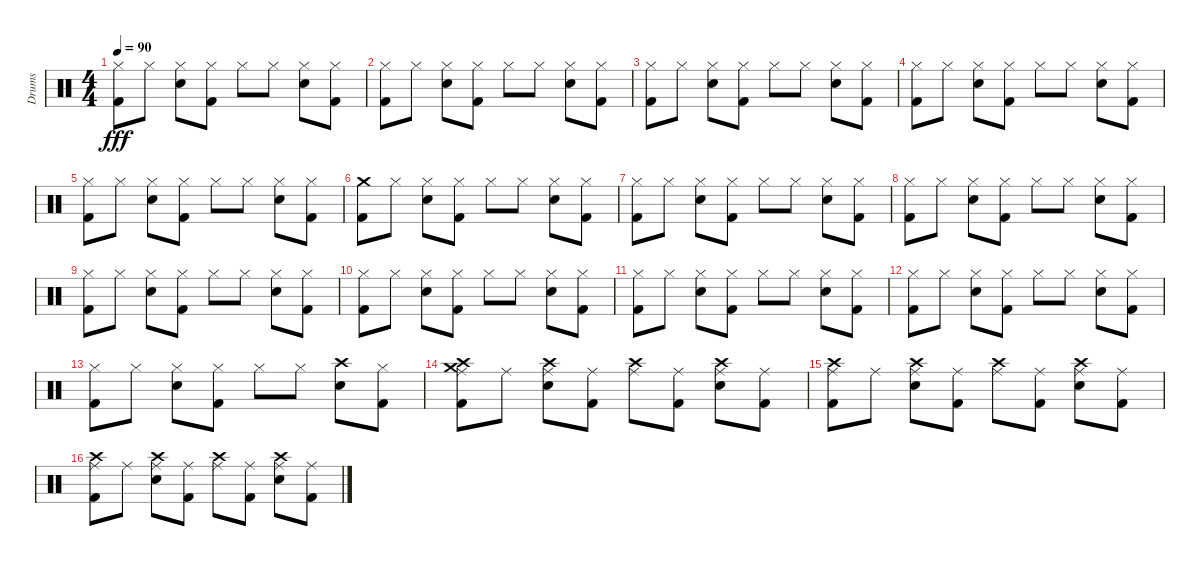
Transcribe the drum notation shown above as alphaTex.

\track ("Drums" "Drums") {instrument percussion}
\staff {score}
\articulation defaults
\ts (4 4)
\tempo 90
\clef neutral
\ks c
("Kick (hit) 2" "Hi-Hat (closed)").8{dy fff} "Hi-Hat (closed)".8 ("Snare (hit) 2" "Hi-Hat (closed)").8 ("Kick (hit) 2" "Hi-Hat (closed)").8 "Hi-Hat (closed)".8 "Hi-Hat (closed)".8 ("Snare (hit) 2" "Hi-Hat (closed)").8 ("Kick (hit) 2" "Hi-Hat (closed)").8 |
("Kick (hit) 2" "Hi-Hat (closed)").8 "Hi-Hat (closed)".8 ("Snare (hit) 2" "Hi-Hat (closed)").8 ("Kick (hit) 2" "Hi-Hat (closed)").8 "Hi-Hat (closed)".8 "Hi-Hat (closed)".8 ("Snare (hit) 2" "Hi-Hat (closed)").8 ("Kick (hit) 2" "Hi-Hat (closed)").8 |
("Kick (hit) 2" "Hi-Hat (closed)").8 "Hi-Hat (closed)".8 ("Snare (hit) 2" "Hi-Hat (closed)").8 ("Kick (hit) 2" "Hi-Hat (closed)").8 "Hi-Hat (closed)".8 "Hi-Hat (closed)".8 ("Snare (hit) 2" "Hi-Hat (closed)").8 ("Kick (hit) 2" "Hi-Hat (closed)").8 |
("Kick (hit) 2" "Hi-Hat (closed)").8 "Hi-Hat (closed)".8 ("Snare (hit) 2" "Hi-Hat (closed)").8 ("Kick (hit) 2" "Hi-Hat (closed)").8 "Hi-Hat (closed)".8 "Hi-Hat (closed)".8 ("Snare (hit) 2" "Hi-Hat (closed)").8 ("Kick (hit) 2" "Hi-Hat (closed)").8 |
("Kick (hit) 2" "Hi-Hat (closed)").8 "Hi-Hat (closed)".8 ("Snare (hit) 2" "Hi-Hat (closed)").8 ("Kick (hit) 2" "Hi-Hat (closed)").8 "Hi-Hat (closed)".8 "Hi-Hat (closed)".8 ("Snare (hit) 2" "Hi-Hat (closed)").8 ("Kick (hit) 2" "Hi-Hat (closed)").8 |
("Kick (hit) 2" "Crash medium (hit)").8 "Hi-Hat (closed)".8 ("Snare (hit) 2" "Hi-Hat (closed)").8 ("Kick (hit) 2" "Hi-Hat (closed)").8 "Hi-Hat (closed)".8 "Hi-Hat (closed)".8 ("Snare (hit) 2" "Hi-Hat (closed)").8 ("Kick (hit) 2" "Hi-Hat (closed)").8 |
("Kick (hit) 2" "Hi-Hat (closed)").8 "Hi-Hat (closed)".8 ("Snare (hit) 2" "Hi-Hat (closed)").8 ("Kick (hit) 2" "Hi-Hat (closed)").8 "Hi-Hat (closed)".8 "Hi-Hat (closed)".8 ("Snare (hit) 2" "Hi-Hat (closed)").8 ("Kick (hit) 2" "Hi-Hat (closed)").8 |
("Kick (hit) 2" "Hi-Hat (closed)").8 "Hi-Hat (closed)".8 ("Snare (hit) 2" "Hi-Hat (closed)").8 ("Kick (hit) 2" "Hi-Hat (closed)").8 "Hi-Hat (closed)".8 "Hi-Hat (closed)".8 ("Snare (hit) 2" "Hi-Hat (closed)").8 ("Kick (hit) 2" "Hi-Hat (closed)").8 |
("Kick (hit) 2" "Hi-Hat (closed)").8 "Hi-Hat (closed)".8 ("Snare (hit) 2" "Hi-Hat (closed)").8 ("Kick (hit) 2" "Hi-Hat (closed)").8 "Hi-Hat (closed)".8 "Hi-Hat (closed)".8 ("Snare (hit) 2" "Hi-Hat (closed)").8 ("Kick (hit) 2" "Hi-Hat (closed)").8 |
("Kick (hit) 2" "Hi-Hat (closed)").8 "Hi-Hat (closed)".8 ("Snare (hit) 2" "Hi-Hat (closed)").8 ("Kick (hit) 2" "Hi-Hat (closed)").8 "Hi-Hat (closed)".8 "Hi-Hat (closed)".8 ("Snare (hit) 2" "Hi-Hat (closed)").8 ("Kick (hit) 2" "Hi-Hat (closed)").8 |
("Kick (hit) 2" "Hi-Hat (closed)").8 "Hi-Hat (closed)".8 ("Snare (hit) 2" "Hi-Hat (closed)").8 ("Kick (hit) 2" "Hi-Hat (closed)").8 "Hi-Hat (closed)".8 "Hi-Hat (closed)".8 ("Snare (hit) 2" "Hi-Hat (closed)").8 ("Kick (hit) 2" "Hi-Hat (closed)").8 |
("Kick (hit) 2" "Hi-Hat (closed)").8 "Hi-Hat (closed)".8 ("Snare (hit) 2" "Hi-Hat (closed)").8 ("Kick (hit) 2" "Hi-Hat (closed)").8 "Hi-Hat (closed)".8 "Hi-Hat (closed)".8 ("Snare (hit) 2" "Hi-Hat (closed)").8 ("Kick (hit) 2" "Hi-Hat (closed)").8 |
("Kick (hit) 2" "Hi-Hat (closed)").8 "Hi-Hat (closed)".8 ("Snare (hit) 2" "Hi-Hat (closed)").8 ("Kick (hit) 2" "Hi-Hat (closed)").8 "Hi-Hat (closed)".8 "Hi-Hat (closed)".8 ("Electric Snare (hit)" "Crash high (hit)").8 ("Kick (hit) 2" "Hi-Hat (closed)").8 |
("Kick (hit) 2" "Crash high (hit)" "Ride (middle)" "Crash medium (hit)").8 "Ride (middle)".8 ("Snare (hit) 2" "Crash high (hit)" "Ride (middle)").8 ("Kick (hit) 2" "Ride (middle)").8 ("Crash high (hit)" "Ride (middle)").8 ("Kick (hit) 2" "Ride (middle)").8 ("Snare (hit) 2" "Crash high (hit)" "Ride (middle)").8 ("Kick (hit) 2" "Ride (middle)").8 |
("Kick (hit) 2" "Crash high (hit)" "Ride (middle)").8 "Ride (middle)".8 ("Snare (hit) 2" "Crash high (hit)" "Ride (middle)").8 ("Kick (hit) 2" "Ride (middle)").8 ("Crash high (hit)" "Ride (middle)").8 ("Kick (hit) 2" "Ride (middle)").8 ("Snare (hit) 2" "Crash high (hit)" "Ride (middle)").8 ("Kick (hit) 2" "Ride (middle)").8 |
("Kick (hit) 2" "Crash high (hit)" "Ride (middle)").8 "Ride (middle)".8 ("Snare (hit) 2" "Crash high (hit)" "Ride (middle)").8 ("Kick (hit) 2" "Ride (middle)").8 ("Crash high (hit)" "Ride (middle)").8 ("Kick (hit) 2" "Ride (middle)").8 ("Snare (hit) 2" "Crash high (hit)" "Ride (middle)").8 ("Kick (hit) 2" "Ride (middle)").8
